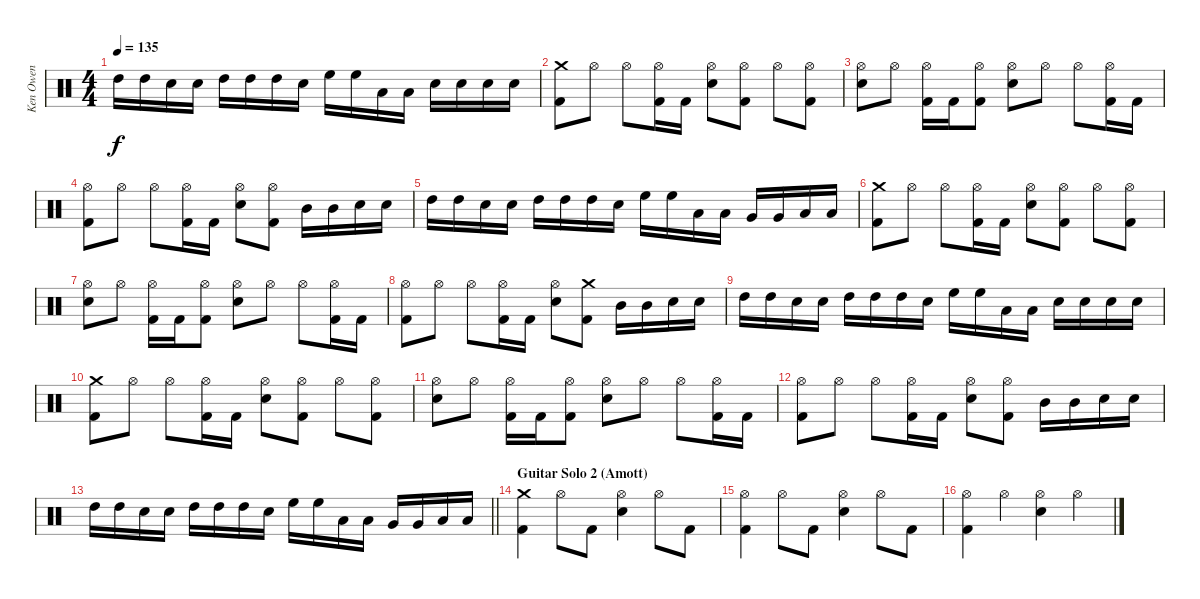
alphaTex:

\track ("Ken Owen" "Ken Owen") {instrument percussion}
\staff {score}
\articulation defaults
\ts (4 4)
\tempo 135
\clef neutral
\ks c "High Tom (hit)".16{dy f} "High Tom (hit)".16 "Electric Snare (hit)".16 "Electric Snare (hit)".16 "High Tom (hit)".16 "High Tom (hit)".16 "High Tom (hit)".16 "Electric Snare (hit)".16 "High Floor Tom (hit)".16 "High Floor Tom (hit)".16 "Low Tom (hit)".16 "Low Tom (hit)".16 "Electric Snare (hit)".16 "Electric Snare (hit)".16 "Electric Snare (hit)".16 "Electric Snare (hit)".16
|
("Crash medium (hit)" "Kick (hit) 2").8 "Hi-Hat (open)".8 "Hi-Hat (open)".8 ("Hi-Hat (open)" "Kick (hit) 2").16 "Kick (hit) 2".16 ("Hi-Hat (open)" "Electric Snare (hit)").8 ("Hi-Hat (open)" "Kick (hit) 2").8 "Hi-Hat (open)".8 ("Hi-Hat (open)" "Kick (hit) 2").8 |
("Hi-Hat (open)" "Electric Snare (hit)").8 "Hi-Hat (open)".8 ("Hi-Hat (open)" "Kick (hit) 2").16 "Kick (hit) 2".16 ("Hi-Hat (open)" "Kick (hit) 2").8 ("Hi-Hat (open)" "Electric Snare (hit)").8 "Hi-Hat (open)".8 "Hi-Hat (open)".8 ("Hi-Hat (open)" "Kick (hit) 2").16 "Kick (hit) 2".16 |
("Hi-Hat (open)" "Kick (hit) 2").8 "Hi-Hat (open)".8 "Hi-Hat (open)".8 ("Hi-Hat (open)" "Kick (hit) 2").16 "Kick (hit) 2".16 ("Hi-Hat (open)" "Electric Snare (hit)").8 ("Hi-Hat (open)" "Kick (hit) 2").8 "Mid Tom (hit)".16 "Mid Tom (hit)".16 "Electric Snare (hit)".16 "Electric Snare (hit)".16 |
"High Tom (hit)".16 "High Tom (hit)".16 "Electric Snare (hit)".16 "Electric Snare (hit)".16 "High Tom (hit)".16 "High Tom (hit)".16 "High Tom (hit)".16 "Electric Snare (hit)".16 "High Floor Tom (hit)".16 "High Floor Tom (hit)".16 "Low Tom (hit)".16 "Low Tom (hit)".16 "Very Low Tom (hit)".16 "Very Low Tom (hit)".16 "Low Floor Tom (hit)".16 "Low Floor Tom (hit)".16 |
("Crash medium (hit)" "Kick (hit) 2").8 "Hi-Hat (open)".8 "Hi-Hat (open)".8 ("Hi-Hat (open)" "Kick (hit) 2").16 "Kick (hit) 2".16 ("Hi-Hat (open)" "Electric Snare (hit)").8 ("Hi-Hat (open)" "Kick (hit) 2").8 "Hi-Hat (open)".8 ("Hi-Hat (open)" "Kick (hit) 2").8 |
("Hi-Hat (open)" "Electric Snare (hit)").8 "Hi-Hat (open)".8 ("Hi-Hat (open)" "Kick (hit) 2").16 "Kick (hit) 2".16 ("Hi-Hat (open)" "Kick (hit) 2").8 ("Hi-Hat (open)" "Electric Snare (hit)").8 "Hi-Hat (open)".8 "Hi-Hat (open)".8 ("Hi-Hat (open)" "Kick (hit) 2").16 "Kick (hit) 2".16 |
("Hi-Hat (open)" "Kick (hit) 2").8 "Hi-Hat (open)".8 "Hi-Hat (open)".8 ("Hi-Hat (open)" "Kick (hit) 2").16 "Kick (hit) 2".16 ("Hi-Hat (open)" "Electric Snare (hit)").8 ("Crash medium (hit)" "Kick (hit) 2").8 "Mid Tom (hit)".16 "Mid Tom (hit)".16 "Electric Snare (hit)".16 "Electric Snare (hit)".16 |
"High Tom (hit)".16 "High Tom (hit)".16 "Electric Snare (hit)".16 "Electric Snare (hit)".16 "High Tom (hit)".16 "High Tom (hit)".16 "High Tom (hit)".16 "Electric Snare (hit)".16 "High Floor Tom (hit)".16 "High Floor Tom (hit)".16 "Low Tom (hit)".16 "Low Tom (hit)".16 "Electric Snare (hit)".16 "Electric Snare (hit)".16 "Electric Snare (hit)".16 "Electric Snare (hit)".16 |
("Crash medium (hit)" "Kick (hit) 2").8 "Hi-Hat (open)".8 "Hi-Hat (open)".8 ("Hi-Hat (open)" "Kick (hit) 2").16 "Kick (hit) 2".16 ("Hi-Hat (open)" "Electric Snare (hit)").8 ("Hi-Hat (open)" "Kick (hit) 2").8 "Hi-Hat (open)".8 ("Hi-Hat (open)" "Kick (hit) 2").8 |
("Hi-Hat (open)" "Electric Snare (hit)").8 "Hi-Hat (open)".8 ("Hi-Hat (open)" "Kick (hit) 2").16 "Kick (hit) 2".16 ("Hi-Hat (open)" "Kick (hit) 2").8 ("Hi-Hat (open)" "Electric Snare (hit)").8 "Hi-Hat (open)".8 "Hi-Hat (open)".8 ("Hi-Hat (open)" "Kick (hit) 2").16 "Kick (hit) 2".16 |
("Hi-Hat (open)" "Kick (hit) 2").8 "Hi-Hat (open)".8 "Hi-Hat (open)".8 ("Hi-Hat (open)" "Kick (hit) 2").16 "Kick (hit) 2".16 ("Hi-Hat (open)" "Electric Snare (hit)").8 ("Hi-Hat (open)" "Kick (hit) 2").8 "Mid Tom (hit)".16 "Mid Tom (hit)".16 "Electric Snare (hit)".16 "Electric Snare (hit)".16 |
\barLineRight lightlight "High Tom (hit)".16 "High Tom (hit)".16 "Electric Snare (hit)".16 "Electric Snare (hit)".16 "High Tom (hit)".16 "High Tom (hit)".16 "High Tom (hit)".16 "Electric Snare (hit)".16 "High Floor Tom (hit)".16 "High Floor Tom (hit)".16 "Low Tom (hit)".16 "Low Tom (hit)".16 "Very Low Tom (hit)".16 "Very Low Tom (hit)".16 "Low Floor Tom (hit)".16 "Low Floor Tom (hit)".16
|
\section ("" "Guitar Solo 2 (Amott)")
("Crash medium (hit)" "Kick (hit) 2").4 "Hi-Hat (open)".8 "Kick (hit) 2".8 ("Hi-Hat (open)" "Electric Snare (hit)").4 "Hi-Hat (open)".8 "Kick (hit) 2".8 |
("Hi-Hat (open)" "Kick (hit) 2").4 "Hi-Hat (open)".8 "Kick (hit) 2".8 ("Hi-Hat (open)" "Electric Snare (hit)").4 "Hi-Hat (open)".8 "Kick (hit) 2".8 |
("Hi-Hat (open)" "Kick (hit) 2").4 "Hi-Hat (open)".4 ("Hi-Hat (open)" "Electric Snare (hit)").4 "Hi-Hat (open)".4
